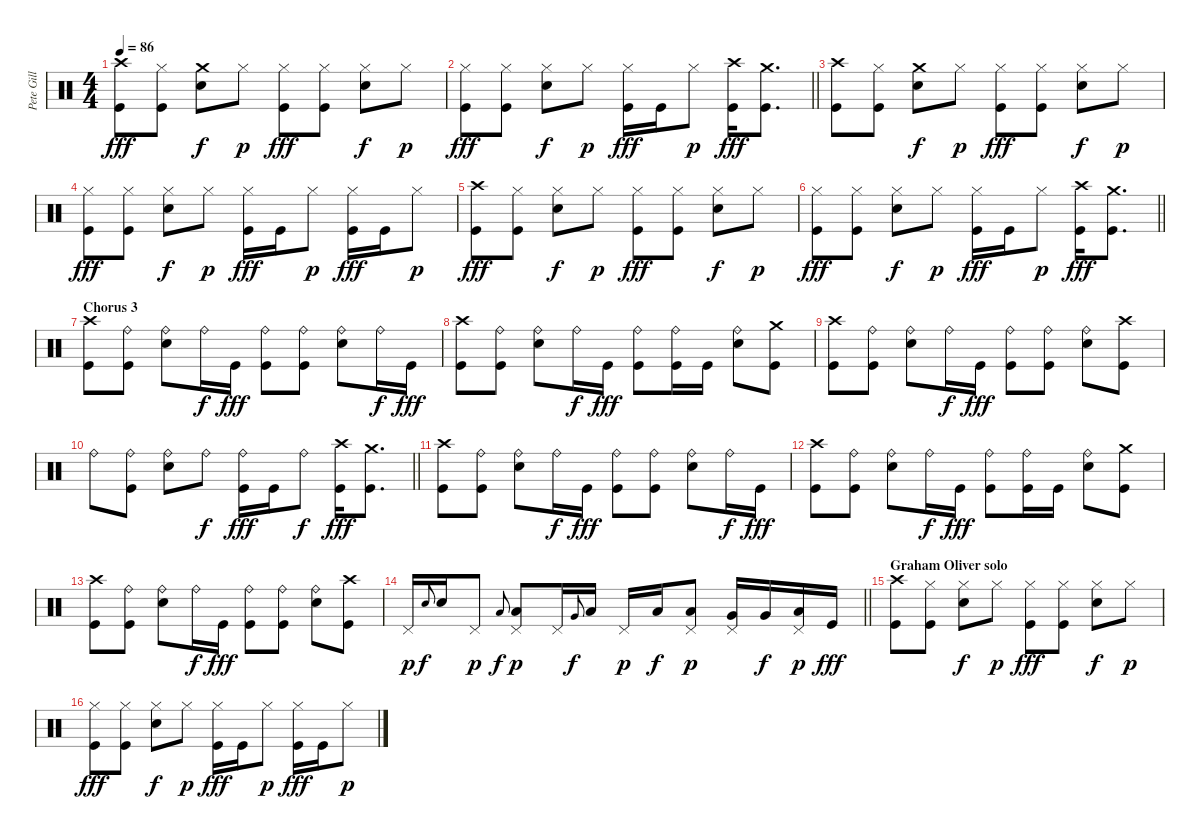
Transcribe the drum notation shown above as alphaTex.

\track ("Pete Gill" "Pete Gill") {instrument percussion}
\staff {score}
\articulation defaults
\ts (4 4)
\tempo 86
\clef neutral
\ks c
("Crash high (hit)" "Kick (hit)").8{dy fff} ("Hi-Hat (closed)" "Kick (hit)").8 ("Crash medium (hit)" "Electric Snare (hit)").8{dy f} "Hi-Hat (closed)".8{dy p} ("Hi-Hat (closed)" "Kick (hit)").8{dy fff} ("Hi-Hat (closed)" "Kick (hit)").8 ("Hi-Hat (closed)" "Electric Snare (hit)").8{dy f} "Hi-Hat (closed)".8{dy p} |
\barLineRight lightlight
("Hi-Hat (closed)" "Kick (hit)").8{dy fff} ("Hi-Hat (closed)" "Kick (hit)").8 ("Hi-Hat (closed)" "Electric Snare (hit)").8{dy f} "Hi-Hat (closed)".8{dy p} ("Hi-Hat (closed)" "Kick (hit)").16{dy fff} "Kick (hit)".16 "Hi-Hat (closed)".8{dy p} ("Crash high (hit)" "Kick (hit)").16{dy fff} ("Crash medium (hit)" "Kick (hit)").8{d} |
("Crash high (hit)" "Kick (hit)").8 ("Hi-Hat (closed)" "Kick (hit)").8 ("Crash medium (hit)" "Electric Snare (hit)").8{dy f} "Hi-Hat (closed)".8{dy p} ("Hi-Hat (closed)" "Kick (hit)").8{dy fff} ("Hi-Hat (closed)" "Kick (hit)").8 ("Hi-Hat (closed)" "Electric Snare (hit)").8{dy f} "Hi-Hat (closed)".8{dy p} |
("Hi-Hat (closed)" "Kick (hit)").8{dy fff} ("Hi-Hat (closed)" "Kick (hit)").8 ("Hi-Hat (closed)" "Electric Snare (hit)").8{dy f} "Hi-Hat (closed)".8{dy p} ("Hi-Hat (closed)" "Kick (hit)").16{dy fff} "Kick (hit)".16 "Hi-Hat (closed)".8{dy p} ("Hi-Hat (closed)" "Kick (hit)").16{dy fff} "Kick (hit)".16 "Hi-Hat (closed)".8{dy p} |
("Crash high (hit)" "Kick (hit)").8{dy fff} ("Hi-Hat (closed)" "Kick (hit)").8 ("Hi-Hat (closed)" "Electric Snare (hit)").8{dy f} "Hi-Hat (closed)".8{dy p} ("Hi-Hat (closed)" "Kick (hit)").8{dy fff} ("Hi-Hat (closed)" "Kick (hit)").8 ("Hi-Hat (closed)" "Electric Snare (hit)").8{dy f} "Hi-Hat (closed)".8{dy p} |
\barLineRight lightlight
("Hi-Hat (closed)" "Kick (hit)").8{dy fff} ("Hi-Hat (closed)" "Kick (hit)").8 ("Hi-Hat (closed)" "Electric Snare (hit)").8{dy f} "Hi-Hat (closed)".8{dy p} ("Hi-Hat (closed)" "Kick (hit)").16{dy fff} "Kick (hit)".16 "Hi-Hat (closed)".8{dy p} ("Crash high (hit)" "Kick (hit)").16{dy fff} ("Crash medium (hit)" "Kick (hit)").8{d} |
\section ("" "Chorus 3")
("Crash high (hit)" "Kick (hit)").8 ("Ride (bell)" "Kick (hit)").8 ("Ride (bell)" "Electric Snare (hit)").8 "Ride (bell)".16{dy f} "Kick (hit)".16{dy fff} ("Ride (bell)" "Kick (hit)").8 ("Ride (bell)" "Kick (hit)").8 ("Ride (bell)" "Electric Snare (hit)").8 "Ride (bell)".16{dy f} "Kick (hit)".16{dy fff} |
("Crash high (hit)" "Kick (hit)").8 ("Ride (bell)" "Kick (hit)").8 ("Ride (bell)" "Electric Snare (hit)").8 "Ride (bell)".16{dy f} "Kick (hit)".16{dy fff} ("Ride (bell)" "Kick (hit)").8 ("Ride (bell)" "Kick (hit)").16 "Kick (hit)".16 ("Ride (bell)" "Electric Snare (hit)").8 ("Crash medium (hit)" "Kick (hit)").8 |
("Crash high (hit)" "Kick (hit)").8 ("Ride (bell)" "Kick (hit)").8 ("Ride (bell)" "Electric Snare (hit)").8 "Ride (bell)".16{dy f} "Kick (hit)".16{dy fff} ("Ride (bell)" "Kick (hit)").8 ("Ride (bell)" "Kick (hit)").8 ("Ride (bell)" "Electric Snare (hit)").8 ("Crash high (hit)" "Kick (hit)").8 |
\barLineRight lightlight "Ride (bell)".8
("Ride (bell)" "Kick (hit)").8 ("Ride (bell)" "Electric Snare (hit)").8 "Ride (bell)".8{dy f} ("Ride (bell)" "Kick (hit)").16{dy fff} "Kick (hit)".16 "Ride (bell)".8{dy f} ("Crash high (hit)" "Kick (hit)").16{dy fff} ("Crash medium (hit)" "Kick (hit)").8{d} |
("Crash high (hit)" "Kick (hit)").8 ("Ride (bell)" "Kick (hit)").8 ("Ride (bell)" "Electric Snare (hit)").8 "Ride (bell)".16{dy f} "Kick (hit)".16{dy fff} ("Ride (bell)" "Kick (hit)").8 ("Ride (bell)" "Kick (hit)").8 ("Ride (bell)" "Electric Snare (hit)").8 "Ride (bell)".16{dy f} "Kick (hit)".16{dy fff} |
("Crash high (hit)" "Kick (hit)").8 ("Ride (bell)" "Kick (hit)").8 ("Ride (bell)" "Electric Snare (hit)").8 "Ride (bell)".16{dy f} "Kick (hit)".16{dy fff} ("Ride (bell)" "Kick (hit)").8 ("Ride (bell)" "Kick (hit)").16 "Kick (hit)".16 ("Ride (bell)" "Electric Snare (hit)").8 ("Crash medium (hit)" "Kick (hit)").8 |
("Crash high (hit)" "Kick (hit)").8 ("Ride (bell)" "Kick (hit)").8 ("Ride (bell)" "Electric Snare (hit)").8 "Ride (bell)".16{dy f} "Kick (hit)".16{dy fff} ("Ride (bell)" "Kick (hit)").8 ("Ride (bell)" "Kick (hit)").8 ("Ride (bell)" "Electric Snare (hit)").8 ("Crash high (hit)" "Kick (hit)").8 |
\barLineRight lightlight "Pedal Hi-Hat (hit)".16{dy p} "Electric Snare (hit)".8{gr onbeat dy f} "Electric Snare (hit)".16 "Pedal Hi-Hat (hit)".8{dy p} "Low Tom (hit)".8{gr onbeat dy f}
("Pedal Hi-Hat (hit)" "Low Tom (hit)").8{dy p} "Pedal Hi-Hat (hit)".16 "Very Low Tom (hit)".8{gr onbeat dy f} "Low Tom (hit)".16 "Pedal Hi-Hat (hit)".16{dy p} "Low Tom (hit)".16{dy f} ("Pedal Hi-Hat (hit)" "Low Tom (hit)").8{dy p} ("Pedal Hi-Hat (hit)" "Very Low Tom (hit)").16 "Very Low Tom (hit)".16{dy f} ("Pedal Hi-Hat (hit)" "Low Floor Tom (hit)").16{dy p} "Kick (hit)".16{dy fff} |
\section ("" "Graham Oliver solo")
("Crash high (hit)" "Kick (hit)").8 ("Hi-Hat (closed)" "Kick (hit)").8 ("Hi-Hat (closed)" "Electric Snare (hit)").8{dy f} "Hi-Hat (closed)".8{dy p} ("Hi-Hat (closed)" "Kick (hit)").8{dy fff} ("Hi-Hat (closed)" "Kick (hit)").8 ("Hi-Hat (closed)" "Electric Snare (hit)").8{dy f} "Hi-Hat (closed)".8{dy p} |
("Hi-Hat (closed)" "Kick (hit)").8{dy fff} ("Hi-Hat (closed)" "Kick (hit)").8 ("Hi-Hat (closed)" "Electric Snare (hit)").8{dy f} "Hi-Hat (closed)".8{dy p} ("Hi-Hat (closed)" "Kick (hit)").16{dy fff} "Kick (hit)".16 "Hi-Hat (closed)".8{dy p} ("Hi-Hat (closed)" "Kick (hit)").16{dy fff} "Kick (hit)".16 "Hi-Hat (closed)".8{dy p}
